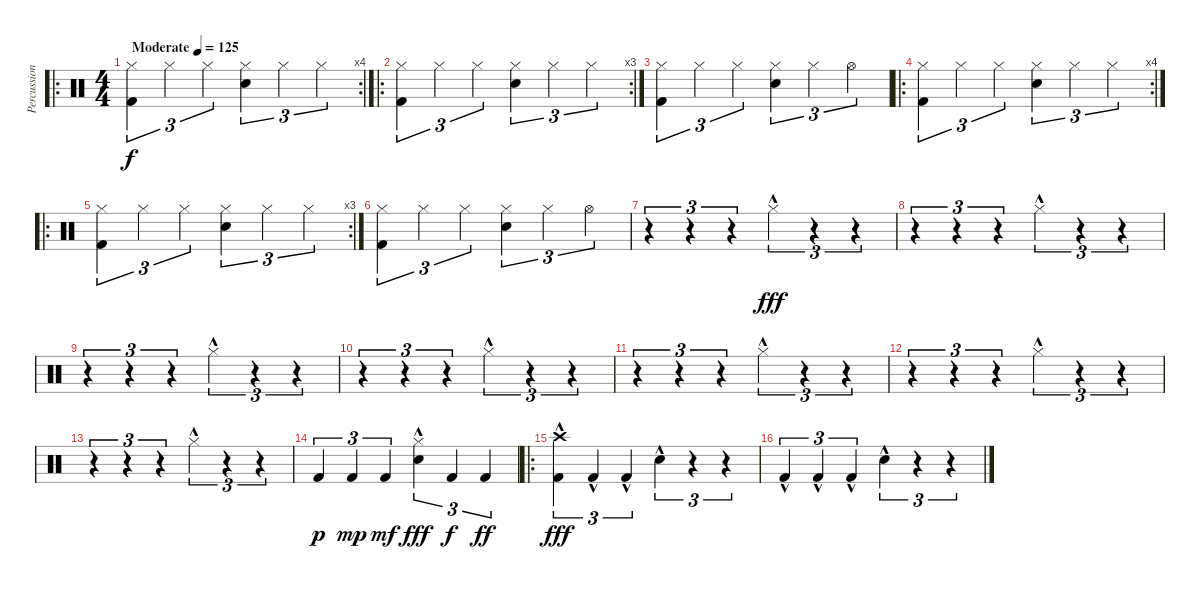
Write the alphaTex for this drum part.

\track ("Percussion" "Percussion") {instrument percussion}
\staff {score}
\articulation defaults
\ro
\rc 4
\ts (4 4)
\tempo (125 "Moderate")
\clef neutral
\ks c
("Hi-Hat (closed)" "Kick (hit) 2").4{tu (3 2) dy f} "Hi-Hat (closed)".4{tu (3 2)} "Hi-Hat (closed)".4{tu (3 2)} ("Hi-Hat (closed)" "Electric Snare (hit)").4{tu (3 2)} "Hi-Hat (closed)".4{tu (3 2)} "Hi-Hat (closed)".4{tu (3 2)} |
\ro
\rc 3
("Hi-Hat (closed)" "Kick (hit) 2").4{tu (3 2)} "Hi-Hat (closed)".4{tu (3 2)} "Hi-Hat (closed)".4{tu (3 2)} ("Hi-Hat (closed)" "Electric Snare (hit)").4{tu (3 2)} "Hi-Hat (closed)".4{tu (3 2)} "Hi-Hat (closed)".4{tu (3 2)} |
("Hi-Hat (closed)" "Kick (hit) 2").4{tu (3 2)} "Hi-Hat (closed)".4{tu (3 2)} "Hi-Hat (closed)".4{tu (3 2)} ("Hi-Hat (closed)" "Electric Snare (hit)").4{tu (3 2)} "Hi-Hat (closed)".4{tu (3 2)} "Hi-Hat (open)".4{tu (3 2)} |
\ro
\rc 4
("Hi-Hat (closed)" "Kick (hit) 2").4{tu (3 2)} "Hi-Hat (closed)".4{tu (3 2)} "Hi-Hat (closed)".4{tu (3 2)} ("Hi-Hat (closed)" "Electric Snare (hit)").4{tu (3 2)} "Hi-Hat (closed)".4{tu (3 2)} "Hi-Hat (closed)".4{tu (3 2)} |
\ro
\rc 3
("Hi-Hat (closed)" "Kick (hit) 2").4{tu (3 2)} "Hi-Hat (closed)".4{tu (3 2)} "Hi-Hat (closed)".4{tu (3 2)} ("Hi-Hat (closed)" "Electric Snare (hit)").4{tu (3 2)} "Hi-Hat (closed)".4{tu (3 2)} "Hi-Hat (closed)".4{tu (3 2)} |
("Hi-Hat (closed)" "Kick (hit) 2").4{tu (3 2)} "Hi-Hat (closed)".4{tu (3 2)} "Hi-Hat (closed)".4{tu (3 2)} ("Hi-Hat (closed)" "Electric Snare (hit)").4{tu (3 2)} "Hi-Hat (closed)".4{tu (3 2)} "Hi-Hat (open)".4{tu (3 2)} |
r.4{tu (3 2)} r.4{tu (3 2)} r.4{tu (3 2)} "Hi-Hat (closed)"{hac}.4{tu (3 2) dy fff} r.4{tu (3 2)} r.4{tu (3 2)} |
r.4{tu (3 2)} r.4{tu (3 2)} r.4{tu (3 2)} "Hi-Hat (closed)"{hac}.4{tu (3 2)} r.4{tu (3 2)} r.4{tu (3 2)} |
r.4{tu (3 2)} r.4{tu (3 2)} r.4{tu (3 2)} "Hi-Hat (closed)"{hac}.4{tu (3 2)} r.4{tu (3 2)} r.4{tu (3 2)} |
r.4{tu (3 2)} r.4{tu (3 2)} r.4{tu (3 2)} "Hi-Hat (closed)"{hac}.4{tu (3 2)} r.4{tu (3 2)} r.4{tu (3 2)} |
r.4{tu (3 2)} r.4{tu (3 2)} r.4{tu (3 2)} "Hi-Hat (closed)"{hac}.4{tu (3 2)} r.4{tu (3 2)} r.4{tu (3 2)} |
r.4{tu (3 2)} r.4{tu (3 2)} r.4{tu (3 2)} "Hi-Hat (closed)"{hac}.4{tu (3 2)} r.4{tu (3 2)} r.4{tu (3 2)} |
r.4{tu (3 2)} r.4{tu (3 2)} r.4{tu (3 2)} "Hi-Hat (closed)"{hac}.4{tu (3 2)} r.4{tu (3 2)} r.4{tu (3 2)} |
"Kick (hit) 2".4{tu (3 2) dy p} "Kick (hit) 2".4{tu (3 2) dy mp} "Kick (hit) 2".4{tu (3 2) dy mf} ("Hi-Hat (closed)"{hac} "Electric Snare (hit)").4{tu (3 2) dy fff} "Kick (hit) 2".4{tu (3 2) dy f} "Kick (hit) 2".4{tu (3 2) dy ff} |
\ro
("Kick (hit) 2"{hac} "Crash high (hit)"{hac}).4{tu (3 2) dy fff} "Kick (hit) 2"{hac}.4{tu (3 2)} "Kick (hit) 2"{hac}.4{tu (3 2)} "Electric Snare (hit)"{hac}.4{tu (3 2)} r.4{tu (3 2)} r.4{tu (3 2)} |
"Kick (hit) 2"{hac}.4{tu (3 2)} "Kick (hit) 2"{hac}.4{tu (3 2)} "Kick (hit) 2"{hac}.4{tu (3 2)} "Electric Snare (hit)"{hac}.4{tu (3 2)} r.4{tu (3 2)} r.4{tu (3 2)}
